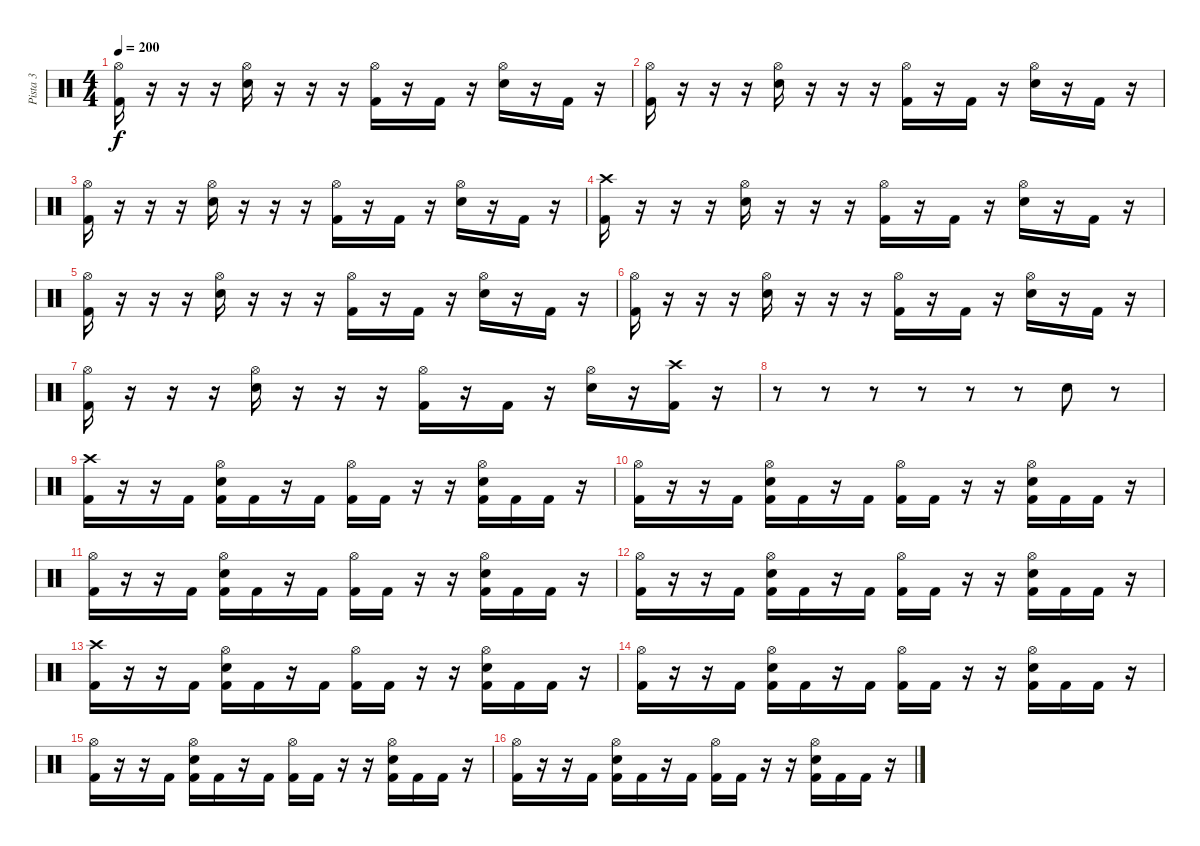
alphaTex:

\track ("Pista 3" "Pista 3") {instrument percussion}
\staff {score}
\articulation defaults
\ts (4 4)
\tempo 200
\clef neutral
\ks c
("Hi-Hat (open)" "Kick (hit) 2").16{dy f} r.16 r.16 r.16 ("Hi-Hat (open)" "Electric Snare (hit)").16 r.16 r.16 r.16 ("Hi-Hat (open)" "Kick (hit) 2").16 r.16 "Kick (hit) 2".16 r.16 ("Hi-Hat (open)" "Electric Snare (hit)").16 r.16 "Kick (hit) 2".16 r.16 |
("Hi-Hat (open)" "Kick (hit) 2").16 r.16 r.16 r.16 ("Hi-Hat (open)" "Electric Snare (hit)").16 r.16 r.16 r.16 ("Hi-Hat (open)" "Kick (hit) 2").16 r.16 "Kick (hit) 2".16 r.16 ("Hi-Hat (open)" "Electric Snare (hit)").16 r.16 "Kick (hit) 2".16 r.16 |
("Hi-Hat (open)" "Kick (hit) 2").16 r.16 r.16 r.16 ("Hi-Hat (open)" "Electric Snare (hit)").16 r.16 r.16 r.16 ("Hi-Hat (open)" "Kick (hit) 2").16 r.16 "Kick (hit) 2".16 r.16 ("Hi-Hat (open)" "Electric Snare (hit)").16 r.16 "Kick (hit) 2".16 r.16 |
("Crash high (hit)" "Kick (hit) 2").16 r.16 r.16 r.16 ("Hi-Hat (open)" "Electric Snare (hit)").16 r.16 r.16 r.16 ("Hi-Hat (open)" "Kick (hit) 2").16 r.16 "Kick (hit) 2".16 r.16 ("Hi-Hat (open)" "Electric Snare (hit)").16 r.16 "Kick (hit) 2".16 r.16 |
("Hi-Hat (open)" "Kick (hit) 2").16 r.16 r.16 r.16 ("Hi-Hat (open)" "Electric Snare (hit)").16 r.16 r.16 r.16 ("Hi-Hat (open)" "Kick (hit) 2").16 r.16 "Kick (hit) 2".16 r.16 ("Hi-Hat (open)" "Electric Snare (hit)").16 r.16 "Kick (hit) 2".16 r.16 |
("Hi-Hat (open)" "Kick (hit) 2").16 r.16 r.16 r.16 ("Hi-Hat (open)" "Electric Snare (hit)").16 r.16 r.16 r.16 ("Hi-Hat (open)" "Kick (hit) 2").16 r.16 "Kick (hit) 2".16 r.16 ("Hi-Hat (open)" "Electric Snare (hit)").16 r.16 "Kick (hit) 2".16 r.16 |
("Hi-Hat (open)" "Kick (hit) 2").16 r.16 r.16 r.16 ("Hi-Hat (open)" "Electric Snare (hit)").16 r.16 r.16 r.16 ("Hi-Hat (open)" "Kick (hit) 2").16 r.16 "Kick (hit) 2".16 r.16 ("Hi-Hat (open)" "Electric Snare (hit)").16 r.16 ("Crash high (hit)" "Kick (hit) 2").16 r.16 |
r.8 r.8 r.8 r.8 r.8 r.8 "Electric Snare (hit)".8 r.8 |
("Crash high (hit)" "Kick (hit) 2").16 r.16 r.16 "Kick (hit) 2".16 ("Hi-Hat (open)" "Electric Snare (hit)" "Kick (hit) 2").16 "Kick (hit) 2".16 r.16 "Kick (hit) 2".16 ("Hi-Hat (open)" "Kick (hit) 2").16 "Kick (hit) 2".16 r.16 r.16 ("Hi-Hat (open)" "Electric Snare (hit)" "Kick (hit) 2").16 "Kick (hit) 2".16 "Kick (hit) 2".16 r.16 |
("Hi-Hat (open)" "Kick (hit) 2").16 r.16 r.16 "Kick (hit) 2".16 ("Hi-Hat (open)" "Electric Snare (hit)" "Kick (hit) 2").16 "Kick (hit) 2".16 r.16 "Kick (hit) 2".16 ("Hi-Hat (open)" "Kick (hit) 2").16 "Kick (hit) 2".16 r.16 r.16 ("Hi-Hat (open)" "Electric Snare (hit)" "Kick (hit) 2").16 "Kick (hit) 2".16 "Kick (hit) 2".16 r.16 |
("Hi-Hat (open)" "Kick (hit) 2").16 r.16 r.16 "Kick (hit) 2".16 ("Hi-Hat (open)" "Electric Snare (hit)" "Kick (hit) 2").16 "Kick (hit) 2".16 r.16 "Kick (hit) 2".16 ("Hi-Hat (open)" "Kick (hit) 2").16 "Kick (hit) 2".16 r.16 r.16 ("Hi-Hat (open)" "Electric Snare (hit)" "Kick (hit) 2").16 "Kick (hit) 2".16 "Kick (hit) 2".16 r.16 |
("Hi-Hat (open)" "Kick (hit) 2").16 r.16 r.16 "Kick (hit) 2".16 ("Hi-Hat (open)" "Electric Snare (hit)" "Kick (hit) 2").16 "Kick (hit) 2".16 r.16 "Kick (hit) 2".16 ("Hi-Hat (open)" "Kick (hit) 2").16 "Kick (hit) 2".16 r.16 r.16 ("Hi-Hat (open)" "Electric Snare (hit)" "Kick (hit) 2").16 "Kick (hit) 2".16 "Kick (hit) 2".16 r.16 |
("Crash high (hit)" "Kick (hit) 2").16 r.16 r.16 "Kick (hit) 2".16 ("Hi-Hat (open)" "Electric Snare (hit)" "Kick (hit) 2").16 "Kick (hit) 2".16 r.16 "Kick (hit) 2".16 ("Hi-Hat (open)" "Kick (hit) 2").16 "Kick (hit) 2".16 r.16 r.16 ("Hi-Hat (open)" "Electric Snare (hit)" "Kick (hit) 2").16 "Kick (hit) 2".16 "Kick (hit) 2".16 r.16 |
("Hi-Hat (open)" "Kick (hit) 2").16 r.16 r.16 "Kick (hit) 2".16 ("Hi-Hat (open)" "Electric Snare (hit)" "Kick (hit) 2").16 "Kick (hit) 2".16 r.16 "Kick (hit) 2".16 ("Hi-Hat (open)" "Kick (hit) 2").16 "Kick (hit) 2".16 r.16 r.16 ("Hi-Hat (open)" "Electric Snare (hit)" "Kick (hit) 2").16 "Kick (hit) 2".16 "Kick (hit) 2".16 r.16 |
("Hi-Hat (open)" "Kick (hit) 2").16 r.16 r.16 "Kick (hit) 2".16 ("Hi-Hat (open)" "Electric Snare (hit)" "Kick (hit) 2").16 "Kick (hit) 2".16 r.16 "Kick (hit) 2".16 ("Hi-Hat (open)" "Kick (hit) 2").16 "Kick (hit) 2".16 r.16 r.16 ("Hi-Hat (open)" "Electric Snare (hit)" "Kick (hit) 2").16 "Kick (hit) 2".16 "Kick (hit) 2".16 r.16 |
("Hi-Hat (open)" "Kick (hit) 2").16 r.16 r.16 "Kick (hit) 2".16 ("Hi-Hat (open)" "Electric Snare (hit)" "Kick (hit) 2").16 "Kick (hit) 2".16 r.16 "Kick (hit) 2".16 ("Hi-Hat (open)" "Kick (hit) 2").16 "Kick (hit) 2".16 r.16 r.16 ("Hi-Hat (open)" "Electric Snare (hit)" "Kick (hit) 2").16 "Kick (hit) 2".16 "Kick (hit) 2".16 r.16
